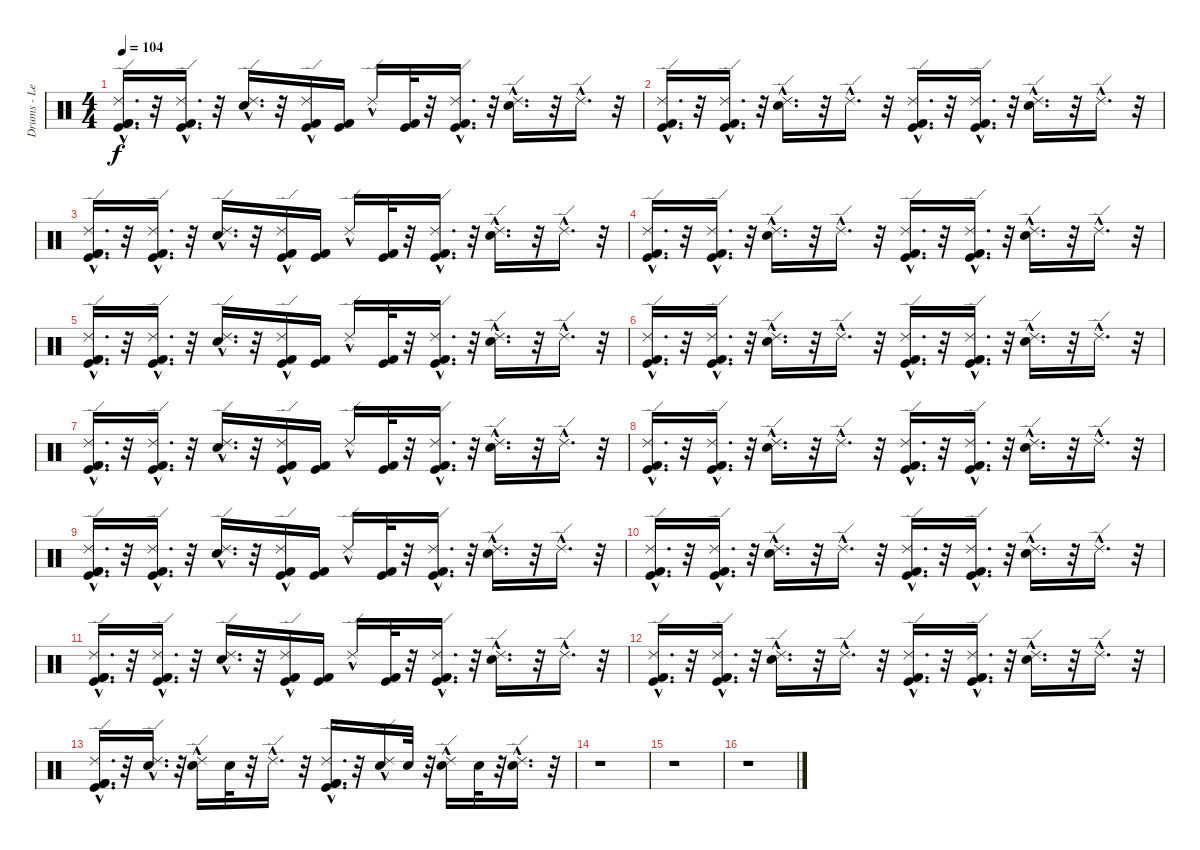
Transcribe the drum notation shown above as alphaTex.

\track ("Drums - Les Claypool" "Drums - Le") {instrument percussion}
\staff {score}
\articulation defaults
\ts (4 4)
\tempo 104
\clef neutral
\ks c
("Kick (hit) 2"{hac} "Ride (edge) 2"{hac} "Kick (hit) 2"{hac} "Kick (hit)"{hac}).16{d dy f} r.32 ("Ride (edge) 2"{hac} "Kick (hit) 2"{hac} "Kick (hit)"{hac}).16{d} r.32 ("Ride (edge) 2"{hac} "Snare (hit) 2"{hac}).16{d} r.32 ("Kick (hit) 2" "Kick (hit)" "Ride (edge) 2"{hac}).16 ("Kick (hit) 2" "Kick (hit)").16 "Ride (edge) 2"{hac}.16 ("Kick (hit) 2" "Kick (hit)").32 r.32 ("Kick (hit) 2"{hac} "Kick (hit)" "Ride (edge) 2"{hac}).16{d} r.32 ("Ride (edge) 2"{hac} "Snare (hit) 2"{hac}).16{d} r.32 "Ride (edge) 2"{hac}.16{d} r.32 |
("Ride (edge) 2"{hac} "Kick (hit) 2"{hac} "Kick (hit)"{hac}).16{d} r.32 ("Kick (hit) 2"{hac} "Ride (edge) 2"{hac} "Kick (hit)"{hac}).16{d} r.32 ("Ride (edge) 2"{hac} "Snare (hit) 2"{hac}).16{d} r.32 "Ride (edge) 2"{hac}.16{d} r.32 ("Kick (hit) 2"{hac} "Ride (edge) 2"{hac} "Kick (hit)"{hac}).16{d} r.32 ("Kick (hit) 2"{hac} "Kick (hit)"{hac} "Ride (edge) 2"{hac}).16{d} r.32 ("Ride (edge) 2"{hac} "Snare (hit) 2"{hac}).16{d} r.32 "Ride (edge) 2"{hac}.16{d} r.32 |
("Kick (hit) 2"{hac} "Ride (edge) 2"{hac} "Kick (hit) 2"{hac} "Kick (hit)"{hac}).16{d} r.32 ("Ride (edge) 2"{hac} "Kick (hit) 2"{hac} "Kick (hit)"{hac}).16{d} r.32 ("Ride (edge) 2"{hac} "Snare (hit) 2"{hac}).16{d} r.32 ("Kick (hit) 2" "Kick (hit)" "Ride (edge) 2"{hac}).16 ("Kick (hit) 2" "Kick (hit)").16 "Ride (edge) 2"{hac}.16 ("Kick (hit) 2" "Kick (hit)").32 r.32 ("Kick (hit) 2"{hac} "Kick (hit)" "Ride (edge) 2"{hac}).16{d} r.32 ("Ride (edge) 2"{hac} "Snare (hit) 2"{hac}).16{d} r.32 "Ride (edge) 2"{hac}.16{d} r.32 |
("Ride (edge) 2"{hac} "Kick (hit) 2"{hac} "Kick (hit)"{hac}).16{d} r.32 ("Kick (hit) 2"{hac} "Ride (edge) 2"{hac} "Kick (hit)"{hac}).16{d} r.32 ("Ride (edge) 2"{hac} "Snare (hit) 2"{hac}).16{d} r.32 "Ride (edge) 2"{hac}.16{d} r.32 ("Kick (hit) 2"{hac} "Ride (edge) 2"{hac} "Kick (hit)"{hac}).16{d} r.32 ("Kick (hit) 2"{hac} "Kick (hit)"{hac} "Ride (edge) 2"{hac}).16{d} r.32 ("Ride (edge) 2"{hac} "Snare (hit) 2"{hac}).16{d} r.32 "Ride (edge) 2"{hac}.16{d} r.32 |
("Kick (hit) 2"{hac} "Ride (edge) 2"{hac} "Kick (hit) 2"{hac} "Kick (hit)"{hac}).16{d} r.32 ("Ride (edge) 2"{hac} "Kick (hit) 2"{hac} "Kick (hit)"{hac}).16{d} r.32 ("Ride (edge) 2"{hac} "Snare (hit) 2"{hac}).16{d} r.32 ("Kick (hit) 2" "Kick (hit)" "Ride (edge) 2"{hac}).16 ("Kick (hit) 2" "Kick (hit)").16 "Ride (edge) 2"{hac}.16 ("Kick (hit) 2" "Kick (hit)").32 r.32 ("Kick (hit) 2"{hac} "Kick (hit)" "Ride (edge) 2"{hac}).16{d} r.32 ("Ride (edge) 2"{hac} "Snare (hit) 2"{hac}).16{d} r.32 "Ride (edge) 2"{hac}.16{d} r.32 |
("Ride (edge) 2"{hac} "Kick (hit) 2"{hac} "Kick (hit)"{hac}).16{d} r.32 ("Kick (hit) 2"{hac} "Ride (edge) 2"{hac} "Kick (hit)"{hac}).16{d} r.32 ("Ride (edge) 2"{hac} "Snare (hit) 2"{hac}).16{d} r.32 "Ride (edge) 2"{hac}.16{d} r.32 ("Kick (hit) 2"{hac} "Ride (edge) 2"{hac} "Kick (hit)"{hac}).16{d} r.32 ("Kick (hit) 2"{hac} "Kick (hit)"{hac} "Ride (edge) 2"{hac}).16{d} r.32 ("Ride (edge) 2"{hac} "Snare (hit) 2"{hac}).16{d} r.32 "Ride (edge) 2"{hac}.16{d} r.32 |
("Kick (hit) 2"{hac} "Ride (edge) 2"{hac} "Kick (hit) 2"{hac} "Kick (hit)"{hac}).16{d} r.32 ("Ride (edge) 2"{hac} "Kick (hit) 2"{hac} "Kick (hit)"{hac}).16{d} r.32 ("Ride (edge) 2"{hac} "Snare (hit) 2"{hac}).16{d} r.32 ("Kick (hit) 2" "Kick (hit)" "Ride (edge) 2"{hac}).16 ("Kick (hit) 2" "Kick (hit)").16 "Ride (edge) 2"{hac}.16 ("Kick (hit) 2" "Kick (hit)").32 r.32 ("Kick (hit) 2"{hac} "Kick (hit)" "Ride (edge) 2"{hac}).16{d} r.32 ("Ride (edge) 2"{hac} "Snare (hit) 2"{hac}).16{d} r.32 "Ride (edge) 2"{hac}.16{d} r.32 |
("Ride (edge) 2"{hac} "Kick (hit) 2"{hac} "Kick (hit)"{hac}).16{d} r.32 ("Kick (hit) 2"{hac} "Ride (edge) 2"{hac} "Kick (hit)"{hac}).16{d} r.32 ("Ride (edge) 2"{hac} "Snare (hit) 2"{hac}).16{d} r.32 "Ride (edge) 2"{hac}.16{d} r.32 ("Kick (hit) 2"{hac} "Ride (edge) 2"{hac} "Kick (hit)"{hac}).16{d} r.32 ("Kick (hit) 2"{hac} "Kick (hit)"{hac} "Ride (edge) 2"{hac}).16{d} r.32 ("Ride (edge) 2"{hac} "Snare (hit) 2"{hac}).16{d} r.32 "Ride (edge) 2"{hac}.16{d} r.32 |
("Kick (hit) 2"{hac} "Ride (edge) 2"{hac} "Kick (hit) 2"{hac} "Kick (hit)"{hac}).16{d} r.32 ("Ride (edge) 2"{hac} "Kick (hit) 2"{hac} "Kick (hit)"{hac}).16{d} r.32 ("Ride (edge) 2"{hac} "Snare (hit) 2"{hac}).16{d} r.32 ("Kick (hit) 2" "Kick (hit)" "Ride (edge) 2"{hac}).16 ("Kick (hit) 2" "Kick (hit)").16 "Ride (edge) 2"{hac}.16 ("Kick (hit) 2" "Kick (hit)").32 r.32 ("Kick (hit) 2"{hac} "Kick (hit)" "Ride (edge) 2"{hac}).16{d} r.32 ("Snare (hit) 2"{hac} "Ride (edge) 2"{hac}).16{d} r.32 "Ride (edge) 2"{hac}.16{d} r.32 |
("Ride (edge) 2"{hac} "Kick (hit) 2"{hac} "Kick (hit)"{hac}).16{d} r.32 ("Kick (hit) 2"{hac} "Ride (edge) 2"{hac} "Kick (hit)"{hac}).16{d} r.32 ("Ride (edge) 2"{hac} "Snare (hit) 2"{hac}).16{d} r.32 "Ride (edge) 2"{hac}.16{d} r.32 ("Kick (hit) 2"{hac} "Ride (edge) 2"{hac} "Kick (hit)"{hac}).16{d} r.32 ("Kick (hit) 2"{hac} "Kick (hit)"{hac} "Ride (edge) 2"{hac}).16{d} r.32 ("Ride (edge) 2"{hac} "Snare (hit) 2"{hac}).16{d} r.32 "Ride (edge) 2"{hac}.16{d} r.32 |
("Kick (hit) 2"{hac} "Ride (edge) 2"{hac} "Kick (hit) 2"{hac} "Kick (hit)"{hac}).16{d} r.32 ("Ride (edge) 2"{hac} "Kick (hit) 2"{hac} "Kick (hit)"{hac}).16{d} r.32 ("Ride (edge) 2"{hac} "Snare (hit) 2"{hac}).16{d} r.32 ("Kick (hit) 2" "Kick (hit)" "Ride (edge) 2"{hac}).16 ("Kick (hit) 2" "Kick (hit)").16 "Ride (edge) 2"{hac}.16 ("Kick (hit) 2" "Kick (hit)").32 r.32 ("Kick (hit) 2"{hac} "Kick (hit)" "Ride (edge) 2"{hac}).16{d} r.32 ("Snare (hit) 2"{hac} "Ride (edge) 2"{hac}).16{d} r.32 "Ride (edge) 2"{hac}.16{d} r.32 |
("Ride (edge) 2"{hac} "Kick (hit) 2"{hac} "Kick (hit)"{hac}).16{d} r.32 ("Kick (hit) 2"{hac} "Ride (edge) 2"{hac} "Kick (hit)"{hac}).16{d} r.32 ("Ride (edge) 2"{hac} "Snare (hit) 2"{hac}).16{d} r.32 "Ride (edge) 2"{hac}.16{d} r.32 ("Kick (hit) 2"{hac} "Ride (edge) 2"{hac} "Kick (hit)"{hac}).16{d} r.32 ("Kick (hit) 2"{hac} "Kick (hit)"{hac} "Ride (edge) 2"{hac}).16{d} r.32 ("Ride (edge) 2"{hac} "Snare (hit) 2"{hac}).16{d} r.32 "Ride (edge) 2"{hac}.16{d} r.32 |
("Kick (hit) 2"{hac} "Ride (edge) 2"{hac} "Kick (hit) 2"{hac} "Kick (hit)"{hac}).16{d} r.32 ("Snare (hit) 2"{hac} "Ride (edge) 2"{hac}).16{d} r.32 ("Snare (hit) 2" "Ride (edge) 2"{hac}).16 "Snare (hit) 2".32 r.32 "Ride (edge) 2"{hac}.16{d} r.32 ("Kick (hit) 2"{hac} "Kick (hit) 2"{hac} "Kick (hit)"{hac} "Ride (edge) 2"{hac}).16{d} r.32 ("Snare (hit) 2" "Ride (edge) 2"{hac}).16 "Snare (hit) 2".32 r.32 ("Snare (hit) 2" "Ride (edge) 2"{hac}).16 "Snare (hit) 2".32 r.32 ("Snare (hit) 2"{hac} "Ride (edge) 2"{hac}).16{d} r.32 |
r.1 |
r.1 |
r.1
